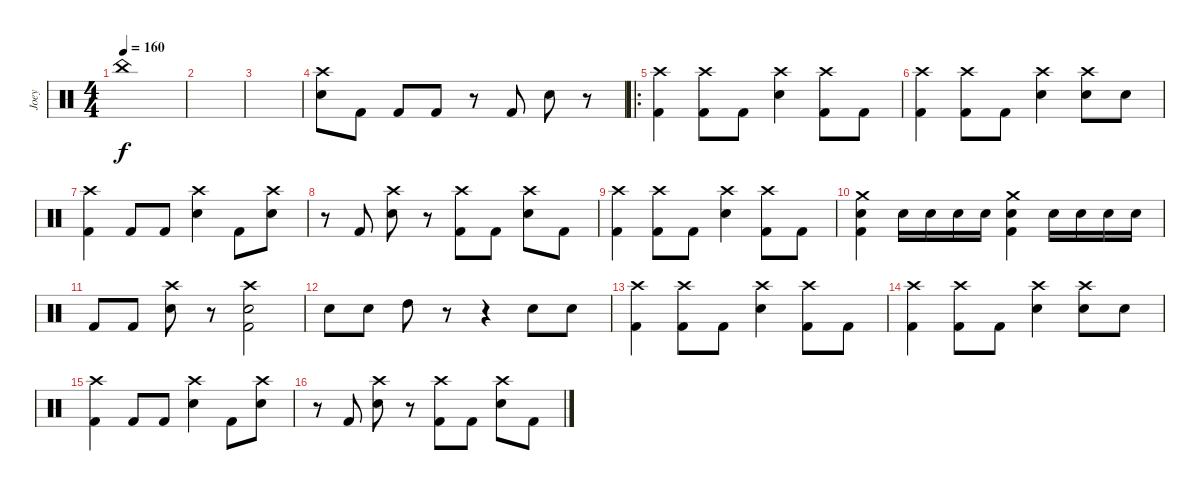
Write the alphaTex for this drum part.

\track ("Joey" "Joey") {instrument percussion}
\staff {score}
\articulation defaults
\ts (4 4)
\tempo 160
\clef neutral
\ks c "China (hit)".1{dy f}
|
|
|
("Crash high (hit)" "Electric Snare (hit)").8 "Kick (hit) 2".8 "Kick (hit) 2".8 "Kick (hit) 2".8 r.8 "Kick (hit) 2".8 "Electric Snare (hit)".8 r.8 |
\ro
("Crash high (hit)" "Kick (hit) 2").4 ("Crash high (hit)" "Kick (hit) 2").8 "Kick (hit) 2".8 ("Crash high (hit)" "Electric Snare (hit)").4 ("Crash high (hit)" "Kick (hit) 2").8 "Kick (hit) 2".8 |
("Crash high (hit)" "Kick (hit) 2").4 ("Crash high (hit)" "Kick (hit) 2").8 "Kick (hit) 2".8 ("Crash high (hit)" "Electric Snare (hit)").4 ("Crash high (hit)" "Electric Snare (hit)").8 "Electric Snare (hit)".8 |
("Crash high (hit)" "Kick (hit) 2").4 "Kick (hit) 2".8 "Kick (hit) 2".8 ("Crash high (hit)" "Electric Snare (hit)").4 "Kick (hit) 2".8 ("Crash high (hit)" "Electric Snare (hit)").8 |
r.8 "Kick (hit) 2".8 ("Crash high (hit)" "Electric Snare (hit)").8 r.8 ("Crash high (hit)" "Kick (hit) 2").8 "Kick (hit) 2".8 ("Crash high (hit)" "Electric Snare (hit)").8 "Kick (hit) 2".8 |
("Crash high (hit)" "Kick (hit) 2").4 ("Crash high (hit)" "Kick (hit) 2").8 "Kick (hit) 2".8 ("Crash high (hit)" "Electric Snare (hit)").4 ("Crash high (hit)" "Kick (hit) 2").8 "Kick (hit) 2".8 |
("Crash medium (hit)" "Electric Snare (hit)" "Kick (hit) 2").4 "Electric Snare (hit)".16 "Electric Snare (hit)".16 "Electric Snare (hit)".16 "Electric Snare (hit)".16 ("Crash medium (hit)" "Electric Snare (hit)" "Kick (hit) 2").4 "Electric Snare (hit)".16 "Electric Snare (hit)".16 "Electric Snare (hit)".16 "Electric Snare (hit)".16 |
"Kick (hit) 2".8 "Kick (hit) 2".8 ("Crash high (hit)" "Electric Snare (hit)").8 r.8 ("Crash high (hit)" "Electric Snare (hit)" "Kick (hit) 2").2 |
"Electric Snare (hit)".8 "Electric Snare (hit)".8 "High Tom (hit)".8 r.8 r.4 "Electric Snare (hit)".8 "Electric Snare (hit)".8 |
("Crash high (hit)" "Kick (hit) 2").4 ("Crash high (hit)" "Kick (hit) 2").8 "Kick (hit) 2".8 ("Crash high (hit)" "Electric Snare (hit)").4 ("Crash high (hit)" "Kick (hit) 2").8 "Kick (hit) 2".8 |
("Crash high (hit)" "Kick (hit) 2").4 ("Crash high (hit)" "Kick (hit) 2").8 "Kick (hit) 2".8 ("Crash high (hit)" "Electric Snare (hit)").4 ("Crash high (hit)" "Electric Snare (hit)").8 "Electric Snare (hit)".8 |
("Crash high (hit)" "Kick (hit) 2").4 "Kick (hit) 2".8 "Kick (hit) 2".8 ("Crash high (hit)" "Electric Snare (hit)").4 "Kick (hit) 2".8 ("Crash high (hit)" "Electric Snare (hit)").8 |
r.8 "Kick (hit) 2".8 ("Crash high (hit)" "Electric Snare (hit)").8 r.8 ("Crash high (hit)" "Kick (hit) 2").8 "Kick (hit) 2".8 ("Crash high (hit)" "Electric Snare (hit)").8 "Kick (hit) 2".8
